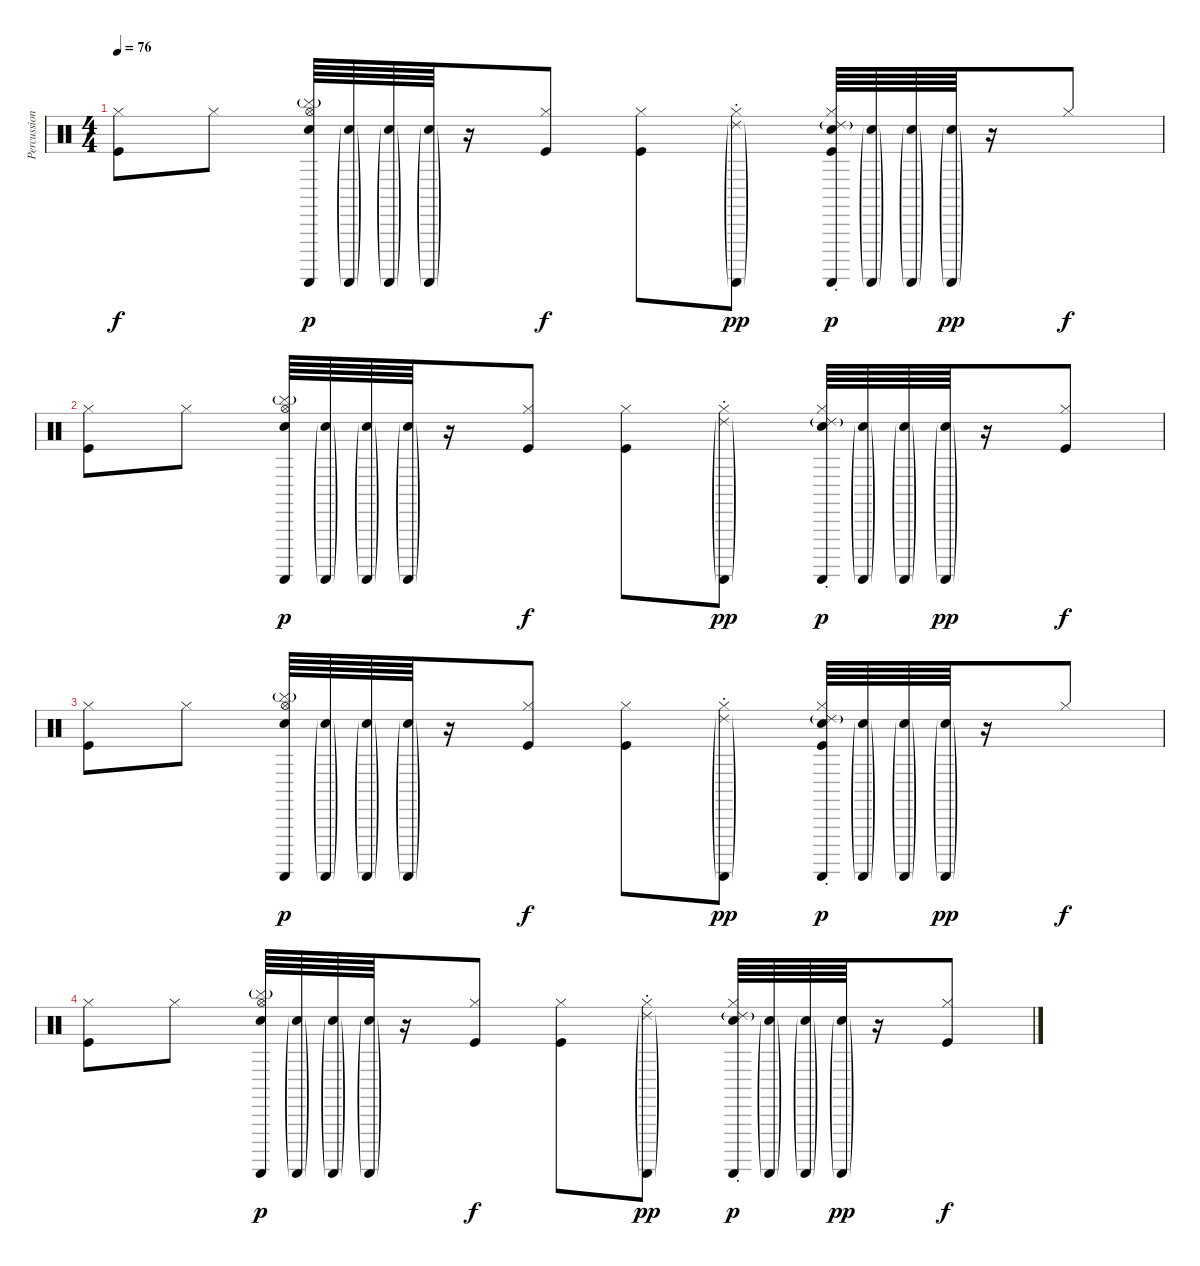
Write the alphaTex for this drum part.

\track ("Percussion" "Percussion") {instrument percussion}
\staff {score}
\articulation defaults
\ts (4 4)
\tempo 76
\clef neutral
\ks c
("Hi-Hat (closed)" "Kick (hit)").8{dy f} "Hi-Hat (closed)".8 ("Hi-Hat (open)" "Cymbal (hit)"{g} "Snare (hit) 2" "Guiro (scrap-return)").64{dy p} ("Snare (hit) 2"{g} "Guiro (scrap-return)"{g}).64 ("Snare (hit) 2"{g} "Guiro (scrap-return)"{g}).64 ("Snare (hit) 2"{g} "Guiro (scrap-return)"{g}).64 r.16 ("Hi-Hat (closed)" "Kick (hit)").8{dy f} ("Hi-Hat (closed)" "Kick (hit)").8 ("Hi-Hat (closed)" "Ride (choke) 2"{g} "Guiro (scrap-return)"{g}).8{dy pp} ("Hi-Hat (closed)" "Ride (choke) 2"{g} "Snare (hit) 2" "Guiro (scrap-return)" "Kick (hit)").64{dy p} ("Snare (hit) 2"{g} "Guiro (scrap-return)"{g}).64 ("Snare (hit) 2"{g} "Guiro (scrap-return)"{g}).64 ("Snare (hit) 2"{g} "Guiro (scrap-return)"{g}).64{dy pp} r.16 "Hi-Hat (closed)".8{dy f} |
("Hi-Hat (closed)" "Kick (hit)").8 "Hi-Hat (closed)".8 ("Hi-Hat (open)" "Cymbal (hit)"{g} "Snare (hit) 2" "Guiro (scrap-return)").64{dy p} ("Snare (hit) 2"{g} "Guiro (scrap-return)"{g}).64 ("Snare (hit) 2"{g} "Guiro (scrap-return)"{g}).64 ("Snare (hit) 2"{g} "Guiro (scrap-return)"{g}).64 r.16 ("Hi-Hat (closed)" "Kick (hit)").8{dy f} ("Hi-Hat (closed)" "Kick (hit)").8 ("Hi-Hat (closed)" "Ride (choke) 2"{g} "Guiro (scrap-return)"{g}).8{dy pp} ("Hi-Hat (closed)" "Ride (choke) 2"{g} "Snare (hit) 2" "Guiro (scrap-return)").64{dy p} ("Snare (hit) 2"{g} "Guiro (scrap-return)"{g}).64 ("Snare (hit) 2"{g} "Guiro (scrap-return)"{g}).64 ("Snare (hit) 2"{g} "Guiro (scrap-return)"{g}).64{dy pp} r.16 ("Hi-Hat (closed)" "Kick (hit)").8{dy f} |
("Hi-Hat (closed)" "Kick (hit)").8 "Hi-Hat (closed)".8 ("Hi-Hat (open)" "Cymbal (hit)"{g} "Snare (hit) 2" "Guiro (scrap-return)").64{dy p} ("Snare (hit) 2"{g} "Guiro (scrap-return)"{g}).64 ("Snare (hit) 2"{g} "Guiro (scrap-return)"{g}).64 ("Snare (hit) 2"{g} "Guiro (scrap-return)"{g}).64 r.16 ("Hi-Hat (closed)" "Kick (hit)").8{dy f} ("Hi-Hat (closed)" "Kick (hit)").8 ("Hi-Hat (closed)" "Ride (choke) 2"{g} "Guiro (scrap-return)"{g}).8{dy pp} ("Hi-Hat (closed)" "Ride (choke) 2"{g} "Snare (hit) 2" "Guiro (scrap-return)" "Kick (hit)").64{dy p} ("Snare (hit) 2"{g} "Guiro (scrap-return)"{g}).64 ("Snare (hit) 2"{g} "Guiro (scrap-return)"{g}).64 ("Snare (hit) 2"{g} "Guiro (scrap-return)"{g}).64{dy pp} r.16 "Hi-Hat (closed)".8{dy f} |
("Hi-Hat (closed)" "Kick (hit)").8 "Hi-Hat (closed)".8 ("Hi-Hat (open)" "Cymbal (hit)"{g} "Snare (hit) 2" "Guiro (scrap-return)").64{dy p} ("Snare (hit) 2"{g} "Guiro (scrap-return)"{g}).64 ("Snare (hit) 2"{g} "Guiro (scrap-return)"{g}).64 ("Snare (hit) 2"{g} "Guiro (scrap-return)"{g}).64 r.16 ("Hi-Hat (closed)" "Kick (hit)").8{dy f} ("Hi-Hat (closed)" "Kick (hit)").8 ("Hi-Hat (closed)" "Ride (choke) 2"{g} "Guiro (scrap-return)"{g}).8{dy pp} ("Hi-Hat (closed)" "Ride (choke) 2"{g} "Snare (hit) 2" "Guiro (scrap-return)").64{dy p} ("Snare (hit) 2"{g} "Guiro (scrap-return)"{g}).64 ("Snare (hit) 2"{g} "Guiro (scrap-return)"{g}).64 ("Snare (hit) 2"{g} "Guiro (scrap-return)"{g}).64{dy pp} r.16 ("Hi-Hat (closed)" "Kick (hit)").8{dy f}
